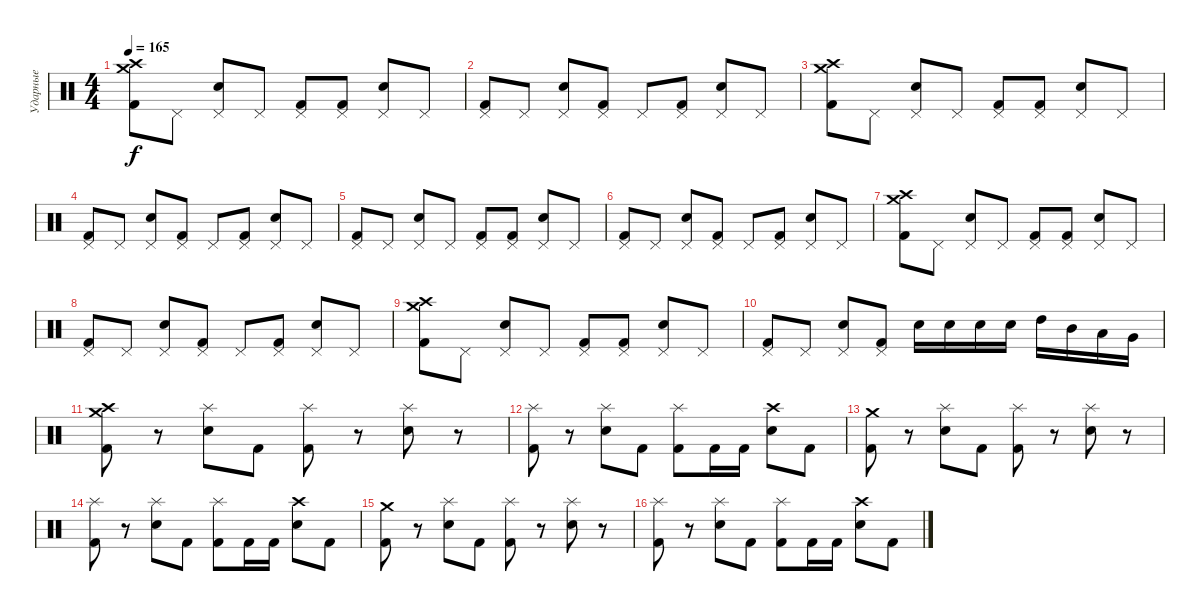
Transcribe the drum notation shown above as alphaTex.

\track ("Ударные" "Ударные") {instrument percussion}
\staff {score}
\articulation defaults
\ts (4 4)
\tempo 165
\clef neutral
\ks c
("Crash medium (hit)" "Crash high (hit)" "Kick (hit) 2").8{dy f} "Pedal Hi-Hat (hit)".8 ("Pedal Hi-Hat (hit)" "Electric Snare (hit)").8 "Pedal Hi-Hat (hit)".8 ("Pedal Hi-Hat (hit)" "Kick (hit) 2").8 ("Pedal Hi-Hat (hit)" "Kick (hit) 2").8 ("Pedal Hi-Hat (hit)" "Electric Snare (hit)").8 "Pedal Hi-Hat (hit)".8 |
("Pedal Hi-Hat (hit)" "Kick (hit) 2").8 "Pedal Hi-Hat (hit)".8 ("Pedal Hi-Hat (hit)" "Electric Snare (hit)").8 ("Pedal Hi-Hat (hit)" "Kick (hit) 2").8 "Pedal Hi-Hat (hit)".8 ("Pedal Hi-Hat (hit)" "Kick (hit) 2").8 ("Pedal Hi-Hat (hit)" "Electric Snare (hit)").8 "Pedal Hi-Hat (hit)".8 |
("Crash medium (hit)" "Crash high (hit)" "Kick (hit) 2").8 "Pedal Hi-Hat (hit)".8 ("Pedal Hi-Hat (hit)" "Electric Snare (hit)").8 "Pedal Hi-Hat (hit)".8 ("Pedal Hi-Hat (hit)" "Kick (hit) 2").8 ("Pedal Hi-Hat (hit)" "Kick (hit) 2").8 ("Pedal Hi-Hat (hit)" "Electric Snare (hit)").8 "Pedal Hi-Hat (hit)".8 |
("Pedal Hi-Hat (hit)" "Kick (hit) 2").8 "Pedal Hi-Hat (hit)".8 ("Pedal Hi-Hat (hit)" "Electric Snare (hit)").8 ("Pedal Hi-Hat (hit)" "Kick (hit) 2").8 "Pedal Hi-Hat (hit)".8 ("Pedal Hi-Hat (hit)" "Kick (hit) 2").8 ("Pedal Hi-Hat (hit)" "Electric Snare (hit)").8 "Pedal Hi-Hat (hit)".8 |
("Pedal Hi-Hat (hit)" "Kick (hit) 2").8 "Pedal Hi-Hat (hit)".8 ("Pedal Hi-Hat (hit)" "Electric Snare (hit)").8 "Pedal Hi-Hat (hit)".8 ("Pedal Hi-Hat (hit)" "Kick (hit) 2").8 ("Pedal Hi-Hat (hit)" "Kick (hit) 2").8 ("Pedal Hi-Hat (hit)" "Electric Snare (hit)").8 "Pedal Hi-Hat (hit)".8 |
("Pedal Hi-Hat (hit)" "Kick (hit) 2").8 "Pedal Hi-Hat (hit)".8 ("Pedal Hi-Hat (hit)" "Electric Snare (hit)").8 ("Pedal Hi-Hat (hit)" "Kick (hit) 2").8 "Pedal Hi-Hat (hit)".8 ("Pedal Hi-Hat (hit)" "Kick (hit) 2").8 ("Pedal Hi-Hat (hit)" "Electric Snare (hit)").8 "Pedal Hi-Hat (hit)".8 |
("Crash medium (hit)" "Crash high (hit)" "Kick (hit) 2").8 "Pedal Hi-Hat (hit)".8 ("Pedal Hi-Hat (hit)" "Electric Snare (hit)").8 "Pedal Hi-Hat (hit)".8 ("Pedal Hi-Hat (hit)" "Kick (hit) 2").8 ("Pedal Hi-Hat (hit)" "Kick (hit) 2").8 ("Pedal Hi-Hat (hit)" "Electric Snare (hit)").8 "Pedal Hi-Hat (hit)".8 |
("Pedal Hi-Hat (hit)" "Kick (hit) 2").8 "Pedal Hi-Hat (hit)".8 ("Pedal Hi-Hat (hit)" "Electric Snare (hit)").8 ("Pedal Hi-Hat (hit)" "Kick (hit) 2").8 "Pedal Hi-Hat (hit)".8 ("Pedal Hi-Hat (hit)" "Kick (hit) 2").8 ("Pedal Hi-Hat (hit)" "Electric Snare (hit)").8 "Pedal Hi-Hat (hit)".8 |
("Crash medium (hit)" "Crash high (hit)" "Kick (hit) 2").8 "Pedal Hi-Hat (hit)".8 ("Pedal Hi-Hat (hit)" "Electric Snare (hit)").8 "Pedal Hi-Hat (hit)".8 ("Pedal Hi-Hat (hit)" "Kick (hit) 2").8 ("Pedal Hi-Hat (hit)" "Kick (hit) 2").8 ("Pedal Hi-Hat (hit)" "Electric Snare (hit)").8 "Pedal Hi-Hat (hit)".8 |
("Pedal Hi-Hat (hit)" "Kick (hit) 2").8 "Pedal Hi-Hat (hit)".8 ("Pedal Hi-Hat (hit)" "Electric Snare (hit)").8 ("Pedal Hi-Hat (hit)" "Kick (hit) 2").8 "Electric Snare (hit)".16 "Electric Snare (hit)".16 "Electric Snare (hit)".16 "Electric Snare (hit)".16 "High Tom (hit)".16 "Mid Tom (hit)".16 "Low Tom (hit)".16 "Very Low Tom (hit)".16 |
("Crash medium (hit)" "Crash high (hit)" "Kick (hit) 2").8 r.8 ("Splash (hit)" "Electric Snare (hit)").8 "Kick (hit) 2".8 ("Splash (hit)" "Kick (hit) 2").8 r.8 ("Splash (hit)" "Electric Snare (hit)").8 r.8 |
("Splash (hit)" "Kick (hit) 2").8 r.8 ("Splash (hit)" "Electric Snare (hit)").8 "Kick (hit) 2".8 ("Splash (hit)" "Kick (hit) 2").8 "Kick (hit) 2".16 "Kick (hit) 2".16 ("Crash high (hit)" "Electric Snare (hit)").8 "Kick (hit) 2".8 |
("Crash medium (hit)" "Kick (hit) 2").8 r.8 ("Splash (hit)" "Electric Snare (hit)").8 "Kick (hit) 2".8 ("Splash (hit)" "Kick (hit) 2").8 r.8 ("Splash (hit)" "Electric Snare (hit)").8 r.8 |
("Splash (hit)" "Kick (hit) 2").8 r.8 ("Splash (hit)" "Electric Snare (hit)").8 "Kick (hit) 2".8 ("Splash (hit)" "Kick (hit) 2").8 "Kick (hit) 2".16 "Kick (hit) 2".16 ("Crash high (hit)" "Electric Snare (hit)").8 "Kick (hit) 2".8 |
("Crash medium (hit)" "Kick (hit) 2").8 r.8 ("Splash (hit)" "Electric Snare (hit)").8 "Kick (hit) 2".8 ("Splash (hit)" "Kick (hit) 2").8 r.8 ("Splash (hit)" "Electric Snare (hit)").8 r.8 |
("Splash (hit)" "Kick (hit) 2").8 r.8 ("Splash (hit)" "Electric Snare (hit)").8 "Kick (hit) 2".8 ("Splash (hit)" "Kick (hit) 2").8 "Kick (hit) 2".16 "Kick (hit) 2".16 ("Crash high (hit)" "Electric Snare (hit)").8 "Kick (hit) 2".8
